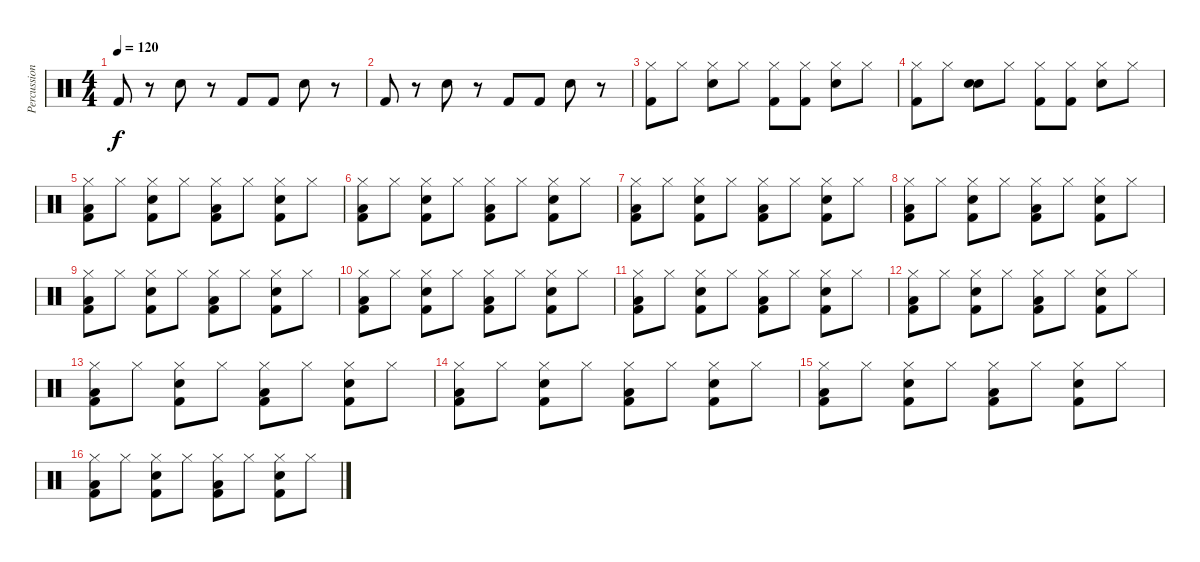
\track ("Percussions" "Percussion") {instrument percussion}
\staff {score}
\articulation defaults
\ts (4 4)
\tempo 120
\clef neutral
\ks c "Kick (hit) 2".8{dy f}
r.8 "Electric Snare (hit)".8 r.8 "Kick (hit) 2".8 "Kick (hit) 2".8 "Electric Snare (hit)".8 r.8 |
"Kick (hit) 2".8 r.8 "Electric Snare (hit)".8 r.8 "Kick (hit) 2".8 "Kick (hit) 2".8 "Electric Snare (hit)".8 r.8 |
("Hi-Hat (closed)" "Kick (hit) 2").8 "Hi-Hat (closed)".8 ("Hi-Hat (closed)" "Electric Snare (hit)").8 "Hi-Hat (closed)".8 ("Hi-Hat (closed)" "Kick (hit) 2").8 ("Hi-Hat (closed)" "Kick (hit) 2").8 ("Hi-Hat (closed)" "Electric Snare (hit)").8 "Hi-Hat (closed)".8 |
("Hi-Hat (closed)" "Kick (hit) 2").8 "Hi-Hat (closed)".8 ("Snare (hit)" "Electric Snare (hit)").8 "Hi-Hat (closed)".8 ("Hi-Hat (closed)" "Kick (hit) 2").8 ("Hi-Hat (closed)" "Kick (hit) 2").8 ("Hi-Hat (closed)" "Electric Snare (hit)").8 "Hi-Hat (closed)".8 |
("Hi-Hat (closed)" "Low Floor Tom (hit)" "Kick (hit) 2").8 "Hi-Hat (closed)".8 ("Hi-Hat (closed)" "Snare (hit) 2" "Kick (hit) 2").8 "Hi-Hat (closed)".8 ("Hi-Hat (closed)" "Low Floor Tom (hit)" "Kick (hit) 2").8 "Hi-Hat (closed)".8 ("Hi-Hat (closed)" "Snare (hit) 2" "Kick (hit) 2").8 "Hi-Hat (closed)".8 |
("Hi-Hat (closed)" "Low Floor Tom (hit)" "Kick (hit) 2").8 "Hi-Hat (closed)".8 ("Hi-Hat (closed)" "Snare (hit) 2" "Kick (hit) 2").8 "Hi-Hat (closed)".8 ("Hi-Hat (closed)" "Low Floor Tom (hit)" "Kick (hit) 2").8 "Hi-Hat (closed)".8 ("Hi-Hat (closed)" "Snare (hit) 2" "Kick (hit) 2").8 "Hi-Hat (closed)".8 |
("Hi-Hat (closed)" "Low Floor Tom (hit)" "Kick (hit) 2").8 "Hi-Hat (closed)".8 ("Hi-Hat (closed)" "Snare (hit) 2" "Kick (hit) 2").8 "Hi-Hat (closed)".8 ("Hi-Hat (closed)" "Low Floor Tom (hit)" "Kick (hit) 2").8 "Hi-Hat (closed)".8 ("Hi-Hat (closed)" "Snare (hit) 2" "Kick (hit) 2").8 "Hi-Hat (closed)".8 |
("Hi-Hat (closed)" "Low Floor Tom (hit)" "Kick (hit) 2").8 "Hi-Hat (closed)".8 ("Hi-Hat (closed)" "Snare (hit) 2" "Kick (hit) 2").8 "Hi-Hat (closed)".8 ("Hi-Hat (closed)" "Low Floor Tom (hit)" "Kick (hit) 2").8 "Hi-Hat (closed)".8 ("Hi-Hat (closed)" "Snare (hit) 2" "Kick (hit) 2").8 "Hi-Hat (closed)".8 |
("Hi-Hat (closed)" "Low Floor Tom (hit)" "Kick (hit) 2").8 "Hi-Hat (closed)".8 ("Hi-Hat (closed)" "Snare (hit) 2" "Kick (hit) 2").8 "Hi-Hat (closed)".8 ("Hi-Hat (closed)" "Low Floor Tom (hit)" "Kick (hit) 2").8 "Hi-Hat (closed)".8 ("Hi-Hat (closed)" "Snare (hit) 2" "Kick (hit) 2").8 "Hi-Hat (closed)".8 |
("Hi-Hat (closed)" "Low Floor Tom (hit)" "Kick (hit) 2").8 "Hi-Hat (closed)".8 ("Hi-Hat (closed)" "Snare (hit) 2" "Kick (hit) 2").8 "Hi-Hat (closed)".8 ("Hi-Hat (closed)" "Low Floor Tom (hit)" "Kick (hit) 2").8 "Hi-Hat (closed)".8 ("Hi-Hat (closed)" "Snare (hit) 2" "Kick (hit) 2").8 "Hi-Hat (closed)".8 |
("Hi-Hat (closed)" "Low Floor Tom (hit)" "Kick (hit) 2").8 "Hi-Hat (closed)".8 ("Hi-Hat (closed)" "Snare (hit) 2" "Kick (hit) 2").8 "Hi-Hat (closed)".8 ("Hi-Hat (closed)" "Low Floor Tom (hit)" "Kick (hit) 2").8 "Hi-Hat (closed)".8 ("Hi-Hat (closed)" "Snare (hit) 2" "Kick (hit) 2").8 "Hi-Hat (closed)".8 |
("Hi-Hat (closed)" "Low Floor Tom (hit)" "Kick (hit) 2").8 "Hi-Hat (closed)".8 ("Hi-Hat (closed)" "Snare (hit) 2" "Kick (hit) 2").8 "Hi-Hat (closed)".8 ("Hi-Hat (closed)" "Low Floor Tom (hit)" "Kick (hit) 2").8 "Hi-Hat (closed)".8 ("Hi-Hat (closed)" "Snare (hit) 2" "Kick (hit) 2").8 "Hi-Hat (closed)".8 |
("Hi-Hat (closed)" "Low Floor Tom (hit)" "Kick (hit) 2").8 "Hi-Hat (closed)".8 ("Hi-Hat (closed)" "Snare (hit) 2" "Kick (hit) 2").8 "Hi-Hat (closed)".8 ("Hi-Hat (closed)" "Low Floor Tom (hit)" "Kick (hit) 2").8 "Hi-Hat (closed)".8 ("Hi-Hat (closed)" "Snare (hit) 2" "Kick (hit) 2").8 "Hi-Hat (closed)".8 |
("Hi-Hat (closed)" "Low Floor Tom (hit)" "Kick (hit) 2").8 "Hi-Hat (closed)".8 ("Hi-Hat (closed)" "Snare (hit) 2" "Kick (hit) 2").8 "Hi-Hat (closed)".8 ("Hi-Hat (closed)" "Low Floor Tom (hit)" "Kick (hit) 2").8 "Hi-Hat (closed)".8 ("Hi-Hat (closed)" "Snare (hit) 2" "Kick (hit) 2").8 "Hi-Hat (closed)".8 |
("Hi-Hat (closed)" "Low Floor Tom (hit)" "Kick (hit) 2").8 "Hi-Hat (closed)".8 ("Hi-Hat (closed)" "Snare (hit) 2" "Kick (hit) 2").8 "Hi-Hat (closed)".8 ("Hi-Hat (closed)" "Low Floor Tom (hit)" "Kick (hit) 2").8 "Hi-Hat (closed)".8 ("Hi-Hat (closed)" "Snare (hit) 2" "Kick (hit) 2").8 "Hi-Hat (closed)".8 |
("Hi-Hat (closed)" "Low Floor Tom (hit)" "Kick (hit) 2").8 "Hi-Hat (closed)".8 ("Hi-Hat (closed)" "Snare (hit) 2" "Kick (hit) 2").8 "Hi-Hat (closed)".8 ("Hi-Hat (closed)" "Low Floor Tom (hit)" "Kick (hit) 2").8 "Hi-Hat (closed)".8 ("Hi-Hat (closed)" "Snare (hit) 2" "Kick (hit) 2").8 "Hi-Hat (closed)".8
